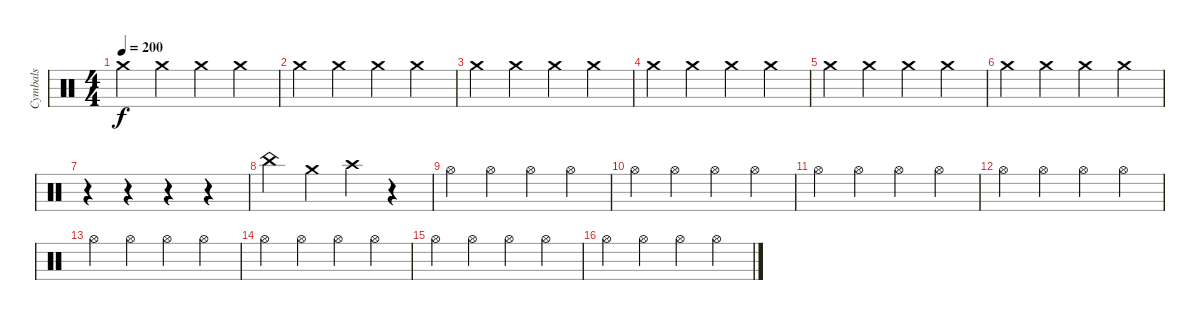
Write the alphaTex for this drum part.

\track ("Cymbals" "Cymbals") {instrument percussion}
\staff {score}
\articulation defaults
\ts (4 4)
\tempo 200
\clef neutral
\ks c "Crash medium (hit)".4{dy f} "Crash medium (hit)".4 "Crash medium (hit)".4 "Crash medium (hit)".4
|
"Crash medium (hit)".4 "Crash medium (hit)".4 "Crash medium (hit)".4 "Crash medium (hit)".4 |
"Crash medium (hit)".4 "Crash medium (hit)".4 "Crash medium (hit)".4 "Crash medium (hit)".4 |
"Crash medium (hit)".4 "Crash medium (hit)".4 "Crash medium (hit)".4 "Crash medium (hit)".4 |
"Crash medium (hit)".4 "Crash medium (hit)".4 "Crash medium (hit)".4 "Crash medium (hit)".4 |
"Crash medium (hit)".4 "Crash medium (hit)".4 "Crash medium (hit)".4 "Crash medium (hit)".4 |
r.4 r.4 r.4 r.4 |
"China (hit)".4 "Crash medium (hit)".4 "Crash high (hit)".4 r.4 |
"Hi-Hat (open)".4 "Hi-Hat (open)".4 "Hi-Hat (open)".4 "Hi-Hat (open)".4 |
"Hi-Hat (open)".4 "Hi-Hat (open)".4 "Hi-Hat (open)".4 "Hi-Hat (open)".4 |
"Hi-Hat (open)".4 "Hi-Hat (open)".4 "Hi-Hat (open)".4 "Hi-Hat (open)".4 |
"Hi-Hat (open)".4 "Hi-Hat (open)".4 "Hi-Hat (open)".4 "Hi-Hat (open)".4 |
"Hi-Hat (open)".4 "Hi-Hat (open)".4 "Hi-Hat (open)".4 "Hi-Hat (open)".4 |
"Hi-Hat (open)".4 "Hi-Hat (open)".4 "Hi-Hat (open)".4 "Hi-Hat (open)".4 |
"Hi-Hat (open)".4 "Hi-Hat (open)".4 "Hi-Hat (open)".4 "Hi-Hat (open)".4 |
"Hi-Hat (open)".4 "Hi-Hat (open)".4 "Hi-Hat (open)".4 "Hi-Hat (open)".4
